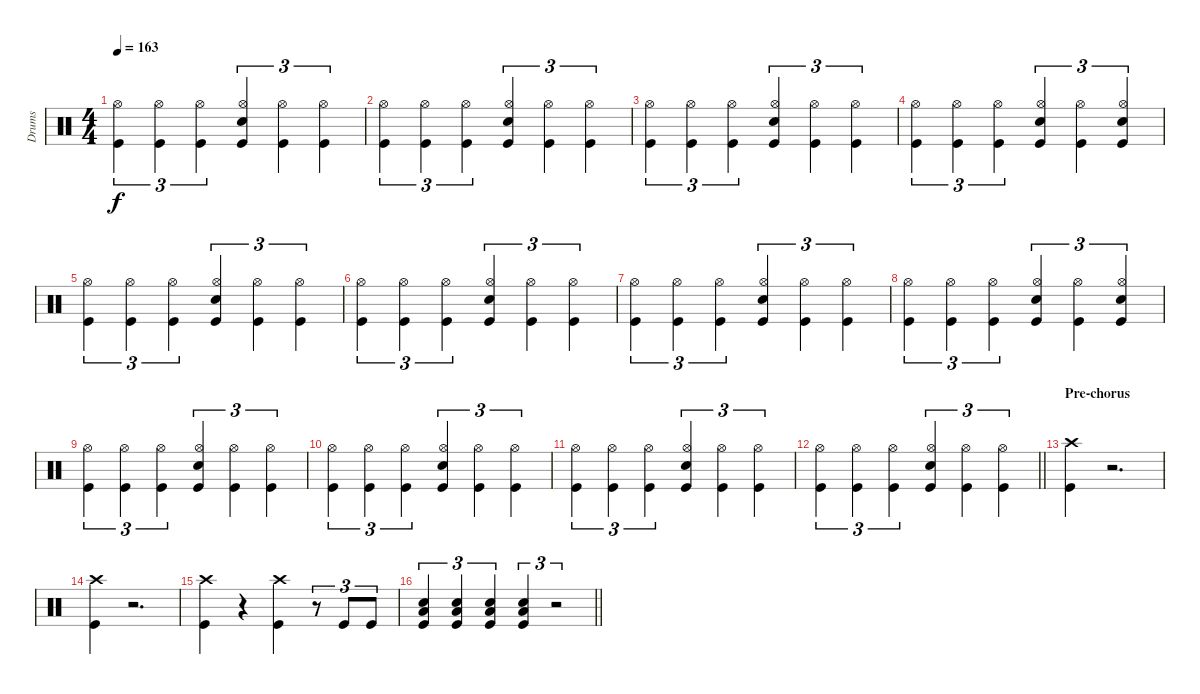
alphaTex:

\track ("Drums" "Drums") {instrument percussion}
\staff {score}
\articulation defaults
\ts (4 4)
\tempo 163
\clef neutral
\ks c
("Kick (hit)" "Hi-Hat (open)").4{tu (3 2) dy f} ("Kick (hit)" "Hi-Hat (open)").4{tu (3 2)} ("Kick (hit)" "Hi-Hat (open)").4{tu (3 2)} ("Snare (hit) 2" "Hi-Hat (open)" "Kick (hit)").4{tu (3 2)} ("Kick (hit)" "Hi-Hat (open)").4{tu (3 2)} ("Kick (hit)" "Hi-Hat (open)").4{tu (3 2)} |
("Kick (hit)" "Hi-Hat (open)").4{tu (3 2)} ("Kick (hit)" "Hi-Hat (open)").4{tu (3 2)} ("Kick (hit)" "Hi-Hat (open)").4{tu (3 2)} ("Snare (hit) 2" "Hi-Hat (open)" "Kick (hit)").4{tu (3 2)} ("Kick (hit)" "Hi-Hat (open)").4{tu (3 2)} ("Kick (hit)" "Hi-Hat (open)").4{tu (3 2)} |
("Kick (hit)" "Hi-Hat (open)").4{tu (3 2)} ("Kick (hit)" "Hi-Hat (open)").4{tu (3 2)} ("Kick (hit)" "Hi-Hat (open)").4{tu (3 2)} ("Snare (hit) 2" "Hi-Hat (open)" "Kick (hit)").4{tu (3 2)} ("Kick (hit)" "Hi-Hat (open)").4{tu (3 2)} ("Kick (hit)" "Hi-Hat (open)").4{tu (3 2)} |
("Kick (hit)" "Hi-Hat (open)").4{tu (3 2)} ("Kick (hit)" "Hi-Hat (open)").4{tu (3 2)} ("Kick (hit)" "Hi-Hat (open)").4{tu (3 2)} ("Snare (hit) 2" "Hi-Hat (open)" "Kick (hit)").4{tu (3 2)} ("Kick (hit)" "Hi-Hat (open)").4{tu (3 2)} ("Kick (hit)" "Hi-Hat (open)" "Snare (hit) 2").4{tu (3 2)} |
("Kick (hit)" "Hi-Hat (open)").4{tu (3 2)} ("Kick (hit)" "Hi-Hat (open)").4{tu (3 2)} ("Kick (hit)" "Hi-Hat (open)").4{tu (3 2)} ("Snare (hit) 2" "Hi-Hat (open)" "Kick (hit)").4{tu (3 2)} ("Kick (hit)" "Hi-Hat (open)").4{tu (3 2)} ("Kick (hit)" "Hi-Hat (open)").4{tu (3 2)} |
("Kick (hit)" "Hi-Hat (open)").4{tu (3 2)} ("Kick (hit)" "Hi-Hat (open)").4{tu (3 2)} ("Kick (hit)" "Hi-Hat (open)").4{tu (3 2)} ("Snare (hit) 2" "Hi-Hat (open)" "Kick (hit)").4{tu (3 2)} ("Kick (hit)" "Hi-Hat (open)").4{tu (3 2)} ("Kick (hit)" "Hi-Hat (open)").4{tu (3 2)} |
("Kick (hit)" "Hi-Hat (open)").4{tu (3 2)} ("Kick (hit)" "Hi-Hat (open)").4{tu (3 2)} ("Kick (hit)" "Hi-Hat (open)").4{tu (3 2)} ("Snare (hit) 2" "Hi-Hat (open)" "Kick (hit)").4{tu (3 2)} ("Kick (hit)" "Hi-Hat (open)").4{tu (3 2)} ("Kick (hit)" "Hi-Hat (open)").4{tu (3 2)} |
("Kick (hit)" "Hi-Hat (open)").4{tu (3 2)} ("Kick (hit)" "Hi-Hat (open)").4{tu (3 2)} ("Kick (hit)" "Hi-Hat (open)").4{tu (3 2)} ("Snare (hit) 2" "Hi-Hat (open)" "Kick (hit)").4{tu (3 2)} ("Kick (hit)" "Hi-Hat (open)").4{tu (3 2)} ("Kick (hit)" "Hi-Hat (open)" "Snare (hit) 2").4{tu (3 2)} |
("Kick (hit)" "Hi-Hat (open)").4{tu (3 2)} ("Kick (hit)" "Hi-Hat (open)").4{tu (3 2)} ("Kick (hit)" "Hi-Hat (open)").4{tu (3 2)} ("Snare (hit) 2" "Hi-Hat (open)" "Kick (hit)").4{tu (3 2)} ("Kick (hit)" "Hi-Hat (open)").4{tu (3 2)} ("Kick (hit)" "Hi-Hat (open)").4{tu (3 2)} |
("Kick (hit)" "Hi-Hat (open)").4{tu (3 2)} ("Kick (hit)" "Hi-Hat (open)").4{tu (3 2)} ("Kick (hit)" "Hi-Hat (open)").4{tu (3 2)} ("Snare (hit) 2" "Hi-Hat (open)" "Kick (hit)").4{tu (3 2)} ("Kick (hit)" "Hi-Hat (open)").4{tu (3 2)} ("Kick (hit)" "Hi-Hat (open)").4{tu (3 2)} |
("Kick (hit)" "Hi-Hat (open)").4{tu (3 2)} ("Kick (hit)" "Hi-Hat (open)").4{tu (3 2)} ("Kick (hit)" "Hi-Hat (open)").4{tu (3 2)} ("Snare (hit) 2" "Hi-Hat (open)" "Kick (hit)").4{tu (3 2)} ("Kick (hit)" "Hi-Hat (open)").4{tu (3 2)} ("Kick (hit)" "Hi-Hat (open)").4{tu (3 2)} |
\barLineRight lightlight
("Kick (hit)" "Hi-Hat (open)").4{tu (3 2)} ("Kick (hit)" "Hi-Hat (open)").4{tu (3 2)} ("Kick (hit)" "Hi-Hat (open)").4{tu (3 2)} ("Snare (hit) 2" "Hi-Hat (open)" "Kick (hit)").4{tu (3 2)} ("Kick (hit)" "Hi-Hat (open)").4{tu (3 2)} ("Kick (hit)" "Hi-Hat (open)").4{tu (3 2)} |
\section ("" "Pre-chorus")
("Kick (hit)" "Crash high (hit)").4 r.2{d} |
("Crash high (hit)" "Kick (hit)").4 r.2{d} |
("Kick (hit)" "Crash high (hit)").4 r.4 ("Kick (hit)" "Crash high (hit)").4 r.8{tu (3 2)} "Kick (hit)".8{tu (3 2)} "Kick (hit)".8{tu (3 2)} |
\barLineRight lightlight
("Kick (hit)" "Snare (hit) 2" "Low Floor Tom (hit)").4{tu (3 2)} ("Kick (hit)" "Snare (hit) 2" "Low Floor Tom (hit)").4{tu (3 2)} ("Kick (hit)" "Snare (hit) 2" "Low Floor Tom (hit)").4{tu (3 2)} ("Kick (hit)" "Snare (hit) 2" "Low Floor Tom (hit)").4{tu (3 2)} r.2{tu (3 2)}
